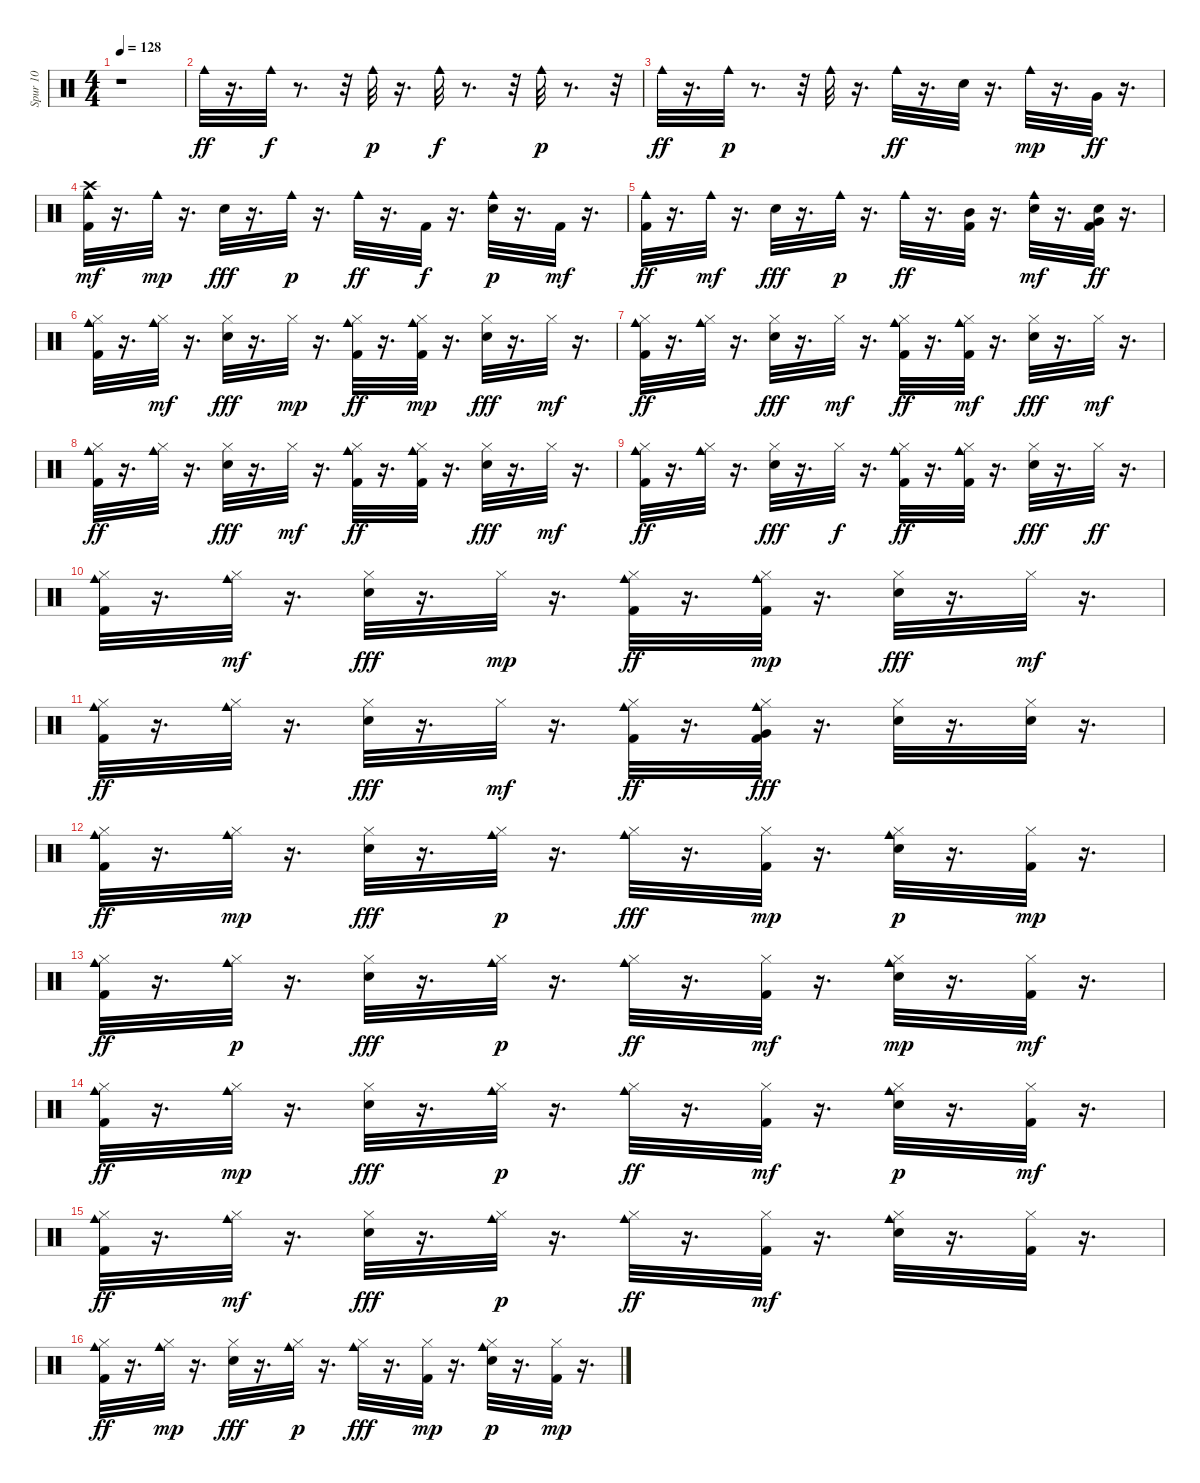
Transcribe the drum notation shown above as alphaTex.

\track ("Spur 10" "Spur 10") {instrument percussion}
\staff {score}
\articulation defaults
\ts (4 4)
\tempo 128
\clef neutral
\ks c
r.1{dy ff} |
"Cowbell medium (hit)".32 r.16{d} "Cowbell medium (hit)".32{dy f} r.8{d} r.32 "Cowbell medium (hit)".32{dy p} r.16{d} "Cowbell medium (hit)".32{dy f} r.8{d} r.32 "Cowbell medium (hit)".32{dy p} r.8{d} r.32 |
"Cowbell medium (hit)".32{dy ff} r.16{d} "Cowbell medium (hit)".32{dy p} r.8{d} r.32 "Cowbell medium (hit)".32 r.16{d} "Cowbell medium (hit)".32{dy ff} r.16{d} "Electric Snare (hit)".32 r.16{d} "Cowbell medium (hit)".32{dy mp} r.16{d} "Very Low Tom (hit)".32{dy ff} r.16{d} |
("Kick (hit) 2" "Cowbell medium (hit)" "Crash high (hit)").32{dy mf} r.16{d} "Cowbell medium (hit)".32{dy mp} r.16{d} "Electric Snare (hit)".32{dy fff} r.16{d} "Cowbell medium (hit)".32{dy p} r.16{d} "Cowbell medium (hit)".32{dy ff} r.16{d} "Kick (hit) 2".32{dy f} r.16{d} ("Electric Snare (hit)" "Cowbell medium (hit)").32{dy p} r.16{d} "Kick (hit) 2".32{dy mf} r.16{d} |
("Kick (hit) 2" "Cowbell medium (hit)").32{dy ff} r.16{d} "Cowbell medium (hit)".32{dy mf} r.16{d} "Electric Snare (hit)".32{dy fff} r.16{d} "Cowbell medium (hit)".32{dy p} r.16{d} "Cowbell medium (hit)".32{dy ff} r.16{d} ("Kick (hit) 2" "Mid Tom (hit)").32 r.16{d} ("Electric Snare (hit)" "Cowbell medium (hit)").32{dy mf} r.16{d} ("Kick (hit) 2" "Very Low Tom (hit)" "Electric Snare (hit)").32{dy ff} r.16{d} |
("Kick (hit) 2" "Hi-Hat (closed)" "Cowbell medium (hit)").32 r.16{d} ("Hi-Hat (closed)" "Cowbell medium (hit)").32{dy mf} r.16{d} ("Electric Snare (hit)" "Hi-Hat (closed)").32{dy fff} r.16{d} "Hi-Hat (closed)".32{dy mp} r.16{d} ("Kick (hit) 2" "Hi-Hat (closed)" "Cowbell medium (hit)").32{dy ff} r.16{d} ("Kick (hit) 2" "Hi-Hat (closed)" "Cowbell medium (hit)").32{dy mp} r.16{d} ("Electric Snare (hit)" "Hi-Hat (closed)").32{dy fff} r.16{d} "Hi-Hat (closed)".32{dy mf} r.16{d} |
("Kick (hit) 2" "Hi-Hat (closed)" "Cowbell medium (hit)").32{dy ff} r.16{d} ("Hi-Hat (closed)" "Cowbell medium (hit)").32 r.16{d} ("Electric Snare (hit)" "Hi-Hat (closed)").32{dy fff} r.16{d} "Hi-Hat (closed)".32{dy mf} r.16{d} ("Kick (hit) 2" "Hi-Hat (closed)" "Cowbell medium (hit)").32{dy ff} r.16{d} ("Kick (hit) 2" "Hi-Hat (closed)" "Cowbell medium (hit)").32{dy mf} r.16{d} ("Electric Snare (hit)" "Hi-Hat (closed)").32{dy fff} r.16{d} "Hi-Hat (closed)".32{dy mf} r.16{d} |
("Kick (hit) 2" "Hi-Hat (closed)" "Cowbell medium (hit)").32{dy ff} r.16{d} ("Hi-Hat (closed)" "Cowbell medium (hit)").32 r.16{d} ("Electric Snare (hit)" "Hi-Hat (closed)").32{dy fff} r.16{d} "Hi-Hat (closed)".32{dy mf} r.16{d} ("Kick (hit) 2" "Hi-Hat (closed)" "Cowbell medium (hit)").32{dy ff} r.16{d} ("Kick (hit) 2" "Hi-Hat (closed)" "Cowbell medium (hit)").32 r.16{d} ("Electric Snare (hit)" "Hi-Hat (closed)").32{dy fff} r.16{d} "Hi-Hat (closed)".32{dy mf} r.16{d} |
("Kick (hit) 2" "Hi-Hat (closed)" "Cowbell medium (hit)").32{dy ff} r.16{d} ("Hi-Hat (closed)" "Cowbell medium (hit)").32 r.16{d} ("Electric Snare (hit)" "Hi-Hat (closed)").32{dy fff} r.16{d} "Hi-Hat (closed)".32{dy f} r.16{d} ("Kick (hit) 2" "Hi-Hat (closed)" "Cowbell medium (hit)").32{dy ff} r.16{d} ("Kick (hit) 2" "Hi-Hat (closed)" "Cowbell medium (hit)").32 r.16{d} ("Electric Snare (hit)" "Hi-Hat (closed)").32{dy fff} r.16{d} "Hi-Hat (closed)".32{dy ff} r.16{d} |
("Kick (hit) 2" "Hi-Hat (closed)" "Cowbell medium (hit)").32 r.16{d} ("Hi-Hat (closed)" "Cowbell medium (hit)").32{dy mf} r.16{d} ("Electric Snare (hit)" "Hi-Hat (closed)").32{dy fff} r.16{d} "Hi-Hat (closed)".32{dy mp} r.16{d} ("Kick (hit) 2" "Hi-Hat (closed)" "Cowbell medium (hit)").32{dy ff} r.16{d} ("Kick (hit) 2" "Hi-Hat (closed)" "Cowbell medium (hit)").32{dy mp} r.16{d} ("Electric Snare (hit)" "Hi-Hat (closed)").32{dy fff} r.16{d} "Hi-Hat (closed)".32{dy mf} r.16{d} |
("Kick (hit) 2" "Hi-Hat (closed)" "Cowbell medium (hit)").32{dy ff} r.16{d} ("Hi-Hat (closed)" "Cowbell medium (hit)").32 r.16{d} ("Electric Snare (hit)" "Hi-Hat (closed)").32{dy fff} r.16{d} "Hi-Hat (closed)".32{dy mf} r.16{d} ("Kick (hit) 2" "Hi-Hat (closed)" "Cowbell medium (hit)").32{dy ff} r.16{d} ("Kick (hit) 2" "Hi-Hat (closed)" "Cowbell medium (hit)" "Very Low Tom (hit)").32{dy fff} r.16{d} ("Electric Snare (hit)" "Hi-Hat (closed)").32 r.16{d} ("Hi-Hat (closed)" "Electric Snare (hit)").32 r.16{d} |
("Kick (hit) 2" "Hi-Hat (closed)" "Cowbell medium (hit)").32{dy ff} r.16{d} ("Hi-Hat (closed)" "Cowbell medium (hit)").32{dy mp} r.16{d} ("Electric Snare (hit)" "Hi-Hat (closed)").32{dy fff} r.16{d} ("Hi-Hat (closed)" "Cowbell medium (hit)").32{dy p} r.16{d} ("Hi-Hat (closed)" "Cowbell medium (hit)").32{dy fff} r.16{d} ("Kick (hit) 2" "Hi-Hat (closed)").32{dy mp} r.16{d} ("Electric Snare (hit)" "Hi-Hat (closed)" "Cowbell medium (hit)").32{dy p} r.16{d} ("Kick (hit) 2" "Hi-Hat (closed)").32{dy mp} r.16{d} |
("Kick (hit) 2" "Hi-Hat (closed)" "Cowbell medium (hit)").32{dy ff} r.16{d} ("Hi-Hat (closed)" "Cowbell medium (hit)").32{dy p} r.16{d} ("Electric Snare (hit)" "Hi-Hat (closed)").32{dy fff} r.16{d} ("Hi-Hat (closed)" "Cowbell medium (hit)").32{dy p} r.16{d} ("Hi-Hat (closed)" "Cowbell medium (hit)").32{dy ff} r.16{d} ("Kick (hit) 2" "Hi-Hat (closed)").32{dy mf} r.16{d} ("Electric Snare (hit)" "Hi-Hat (closed)" "Cowbell medium (hit)").32{dy mp} r.16{d} ("Kick (hit) 2" "Hi-Hat (closed)").32{dy mf} r.16{d} |
("Kick (hit) 2" "Hi-Hat (closed)" "Cowbell medium (hit)").32{dy ff} r.16{d} ("Hi-Hat (closed)" "Cowbell medium (hit)").32{dy mp} r.16{d} ("Electric Snare (hit)" "Hi-Hat (closed)").32{dy fff} r.16{d} ("Hi-Hat (closed)" "Cowbell medium (hit)").32{dy p} r.16{d} ("Hi-Hat (closed)" "Cowbell medium (hit)").32{dy ff} r.16{d} ("Kick (hit) 2" "Hi-Hat (closed)").32{dy mf} r.16{d} ("Electric Snare (hit)" "Hi-Hat (closed)" "Cowbell medium (hit)").32{dy p} r.16{d} ("Kick (hit) 2" "Hi-Hat (closed)").32{dy mf} r.16{d} |
("Kick (hit) 2" "Hi-Hat (closed)" "Cowbell medium (hit)").32{dy ff} r.16{d} ("Hi-Hat (closed)" "Cowbell medium (hit)").32{dy mf} r.16{d} ("Electric Snare (hit)" "Hi-Hat (closed)").32{dy fff} r.16{d} ("Hi-Hat (closed)" "Cowbell medium (hit)").32{dy p} r.16{d} ("Hi-Hat (closed)" "Cowbell medium (hit)").32{dy ff} r.16{d} ("Kick (hit) 2" "Hi-Hat (closed)").32{dy mf} r.16{d} ("Electric Snare (hit)" "Hi-Hat (closed)" "Cowbell medium (hit)").32 r.16{d} ("Kick (hit) 2" "Hi-Hat (closed)").32 r.16{d} |
("Kick (hit) 2" "Hi-Hat (closed)" "Cowbell medium (hit)").32{dy ff} r.16{d} ("Hi-Hat (closed)" "Cowbell medium (hit)").32{dy mp} r.16{d} ("Electric Snare (hit)" "Hi-Hat (closed)").32{dy fff} r.16{d} ("Hi-Hat (closed)" "Cowbell medium (hit)").32{dy p} r.16{d} ("Hi-Hat (closed)" "Cowbell medium (hit)").32{dy fff} r.16{d} ("Kick (hit) 2" "Hi-Hat (closed)").32{dy mp} r.16{d} ("Electric Snare (hit)" "Hi-Hat (closed)" "Cowbell medium (hit)").32{dy p} r.16{d} ("Kick (hit) 2" "Hi-Hat (closed)").32{dy mp} r.16{d}
